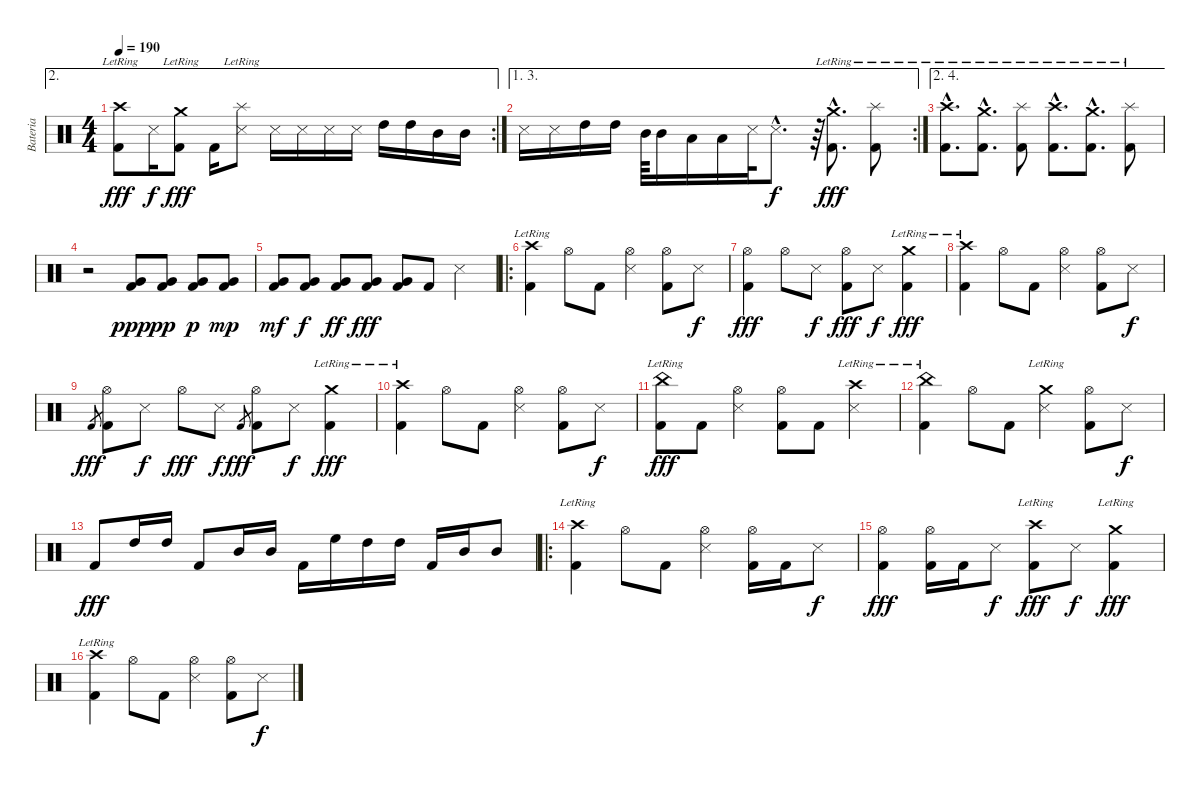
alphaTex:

\track ("Bateria" "Bateria") {instrument percussion}
\staff {score}
\articulation defaults
\ae 2
\rc 2
\ts (4 4)
\tempo 190
\clef neutral
\ks c
("Crash high (hit)"{lr} "Kick (hit) 2").8{dy fff} "Snare (side stick) 3".16{dy f} ("Crash medium (hit)"{lr} "Kick (hit) 2").8{dy fff} "Kick (hit) 2".16 ("Splash (hit)"{lr} "Snare (side stick) 3").8 "Snare (side stick) 3".16 "Snare (side stick) 3".16 "Snare (side stick) 3".16 "Snare (side stick) 3".16 "High Tom (hit)".16 "High Tom (hit)".16 "Mid Tom (hit)".16 "Mid Tom (hit)".16 |
\ae (1 3)
\rc 2 "Snare (side stick) 3".16 "Snare (side stick) 3".16 "High Tom (hit)".16 "High Tom (hit)".16 "Mid Tom (hit)".64 "Mid Tom (hit)".16 "Low Tom (hit)".16 "Low Tom (hit)".16 "Snare (side stick) 3".32 "Snare (side stick) 3"{hac}.8{d dy f}
r.64 ("Crash medium (hit)"{hac lr} "Kick (hit) 2"{hac}).8{d dy fff} ("Splash (hit)"{lr} "Kick (hit) 2").8 |
\ae (2 4)
("Crash high (hit)"{hac lr} "Kick (hit) 2"{hac}).8{d} ("Crash medium (hit)"{hac lr} "Kick (hit) 2"{hac}).8{d} ("Splash (hit)"{lr} "Kick (hit) 2").8 ("Crash high (hit)"{hac lr} "Kick (hit) 2"{hac}).8{d} ("Crash medium (hit)"{hac lr} "Kick (hit) 2"{hac}).8{d} ("Splash (hit)"{lr} "Kick (hit) 2").8 |
r.2 ("Very Low Tom (hit)" "Kick (hit) 2").8{dy ppp} ("Very Low Tom (hit)" "Kick (hit) 2").8{dy pp} ("Very Low Tom (hit)" "Kick (hit) 2").8{dy p} ("Very Low Tom (hit)" "Kick (hit) 2").8{dy mp} |
("Very Low Tom (hit)" "Kick (hit) 2").8{dy mf} ("Very Low Tom (hit)" "Kick (hit) 2").8{dy f} ("Very Low Tom (hit)" "Kick (hit) 2").8{dy ff} ("Very Low Tom (hit)" "Kick (hit) 2").8{dy fff} ("Very Low Tom (hit)" "Kick (hit) 2").8 "Kick (hit) 2".8 "Snare (side stick) 3".4 |
\ro
("Crash high (hit)"{lr} "Kick (hit) 2").4 "Hi-Hat (open)".8 "Kick (hit) 2".8 ("Hi-Hat (open)" "Snare (side stick) 3").4 ("Hi-Hat (open)" "Kick (hit) 2").8 "Snare (side stick) 3".8{dy f} |
("Hi-Hat (open)" "Kick (hit) 2").4{dy fff} "Hi-Hat (open)".8 "Snare (side stick) 3".8{dy f} ("Hi-Hat (open)" "Kick (hit) 2").8{dy fff} "Snare (side stick) 3".8{dy f} ("Crash medium (hit)"{lr} "Kick (hit) 2").4{dy fff} |
("Crash high (hit)"{lr} "Kick (hit) 2").4 "Hi-Hat (open)".8 "Kick (hit) 2".8 ("Hi-Hat (open)" "Snare (side stick) 3").4 ("Hi-Hat (open)" "Kick (hit) 2").8 "Snare (side stick) 3".8{dy f} |
"Kick (hit) 2".8{gr dy fff} ("Hi-Hat (open)" "Kick (hit) 2").8 "Snare (side stick) 3".8{dy f} "Hi-Hat (open)".8{dy fff} "Snare (side stick) 3".8{dy f} "Kick (hit) 2".8{gr dy fff} ("Hi-Hat (open)" "Kick (hit) 2").8 "Snare (side stick) 3".8{dy f} ("Crash medium (hit)"{lr} "Kick (hit) 2").4{dy fff} |
("Crash high (hit)"{lr} "Kick (hit) 2").4 "Hi-Hat (open)".8 "Kick (hit) 2".8 ("Hi-Hat (open)" "Snare (side stick) 3").4 ("Hi-Hat (open)" "Kick (hit) 2").8 "Snare (side stick) 3".8{dy f} |
("China (hit)"{lr} "Kick (hit) 2").8{dy fff} "Kick (hit) 2".8 ("Hi-Hat (open)" "Snare (side stick) 3").4 ("Hi-Hat (open)" "Kick (hit) 2").8 "Kick (hit) 2".8 ("Crash high (hit)"{lr} "Snare (side stick) 3").4 |
("China (hit)"{lr} "Kick (hit) 2").4 "Hi-Hat (open)".8 "Kick (hit) 2".8 ("Crash medium (hit)"{lr} "Snare (side stick) 3").4 ("Hi-Hat (open)" "Kick (hit) 2").8 "Snare (side stick) 3".8{dy f} |
"Kick (hit) 2".8{dy fff} "High Tom (hit)".16 "High Tom (hit)".16 "Kick (hit) 2".8 "Mid Tom (hit)".16 "Mid Tom (hit)".16 "Kick (hit) 2".16 "High Floor Tom (hit)".16 "High Tom (hit)".16 "High Tom (hit)".16 "Kick (hit) 2".16 "Mid Tom (hit)".16 "Mid Tom (hit)".8 |
\ro
("Crash high (hit)"{lr} "Kick (hit) 2").4 "Hi-Hat (open)".8 "Kick (hit) 2".8 ("Hi-Hat (open)" "Snare (side stick) 3").4 ("Hi-Hat (open)" "Kick (hit) 2").16 "Kick (hit) 2".16 "Snare (side stick) 3".8{dy f} |
("Hi-Hat (open)" "Kick (hit) 2").4{dy fff} ("Hi-Hat (open)" "Kick (hit) 2").16 "Kick (hit) 2".16 "Snare (side stick) 3".8{dy f} ("Crash high (hit)"{lr} "Kick (hit) 2").8{dy fff} "Snare (side stick) 3".8{dy f} ("Crash medium (hit)"{lr} "Kick (hit) 2").4{dy fff} |
("Crash high (hit)"{lr} "Kick (hit) 2").4 "Hi-Hat (open)".8 "Kick (hit) 2".8 ("Hi-Hat (open)" "Snare (side stick) 3").4 ("Hi-Hat (open)" "Kick (hit) 2").8 "Snare (side stick) 3".8{dy f}
